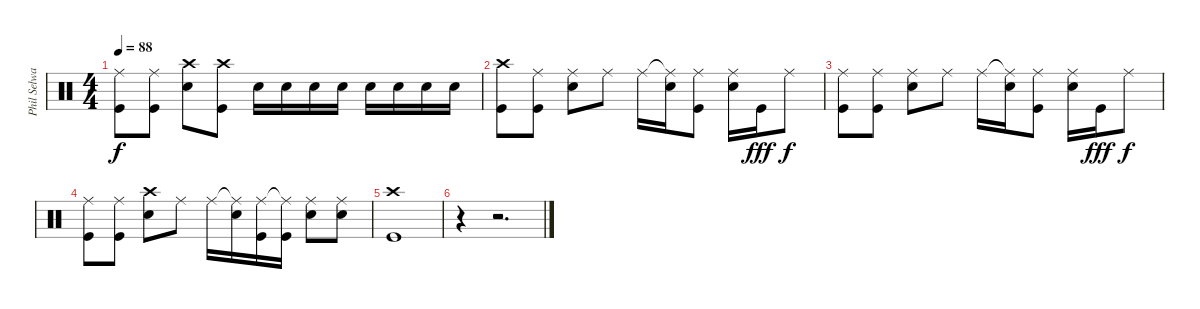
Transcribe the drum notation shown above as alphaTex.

\track ("Phil Selway" "Phil Selwa") {instrument percussion}
\staff {score}
\articulation defaults
\ts (4 4)
\tempo 88
\clef neutral
\ks c
("Ride (middle)" "Kick (hit)").8{dy f} ("Ride (middle)" "Kick (hit)").8 ("Crash high (hit)" "Snare (hit) 2").8 ("Crash high (hit)" "Kick (hit)").8 "Snare (hit) 2".16 "Snare (hit) 2".16 "Snare (hit) 2".16 "Snare (hit) 2".16 "Snare (hit) 2".16 "Snare (hit) 2".16 "Snare (hit) 2".16 "Snare (hit) 2".16 |
("Crash high (hit)" "Kick (hit)").8 ("Ride (middle)" "Kick (hit)").8 ("Ride (middle)" "Snare (hit) 2").8 "Ride (middle)".8 "Ride (middle)".16 ("Ride (middle)"{t} "Snare (hit) 2").16 ("Ride (middle)" "Kick (hit)").8 ("Ride (middle)" "Snare (hit) 2").16 "Kick (hit)".16{dy fff} "Ride (middle)".8{dy f} |
("Ride (middle)" "Kick (hit)").8 ("Ride (middle)" "Kick (hit)").8 ("Ride (middle)" "Snare (hit) 2").8 "Ride (middle)".8 "Ride (middle)".16 ("Ride (middle)"{t} "Snare (hit) 2").16 ("Ride (middle)" "Kick (hit)").8 ("Ride (middle)" "Snare (hit) 2").16 "Kick (hit)".16{dy fff} "Ride (middle)".8{dy f} |
("Ride (middle)" "Kick (hit)").8 ("Ride (middle)" "Kick (hit)").8 ("Crash high (hit)" "Snare (hit) 2").8 "Ride (middle)".8 "Ride (middle)".16 ("Ride (middle)"{t} "Snare (hit) 2").16 ("Ride (middle)" "Kick (hit)").16 ("Ride (middle)"{t} "Kick (hit)").16 ("Ride (middle)" "Snare (hit) 2").8 ("Ride (middle)" "Snare (hit) 2").8 |
("Crash high (hit)" "Kick (hit)").1 |
r.4 r.2{d}
